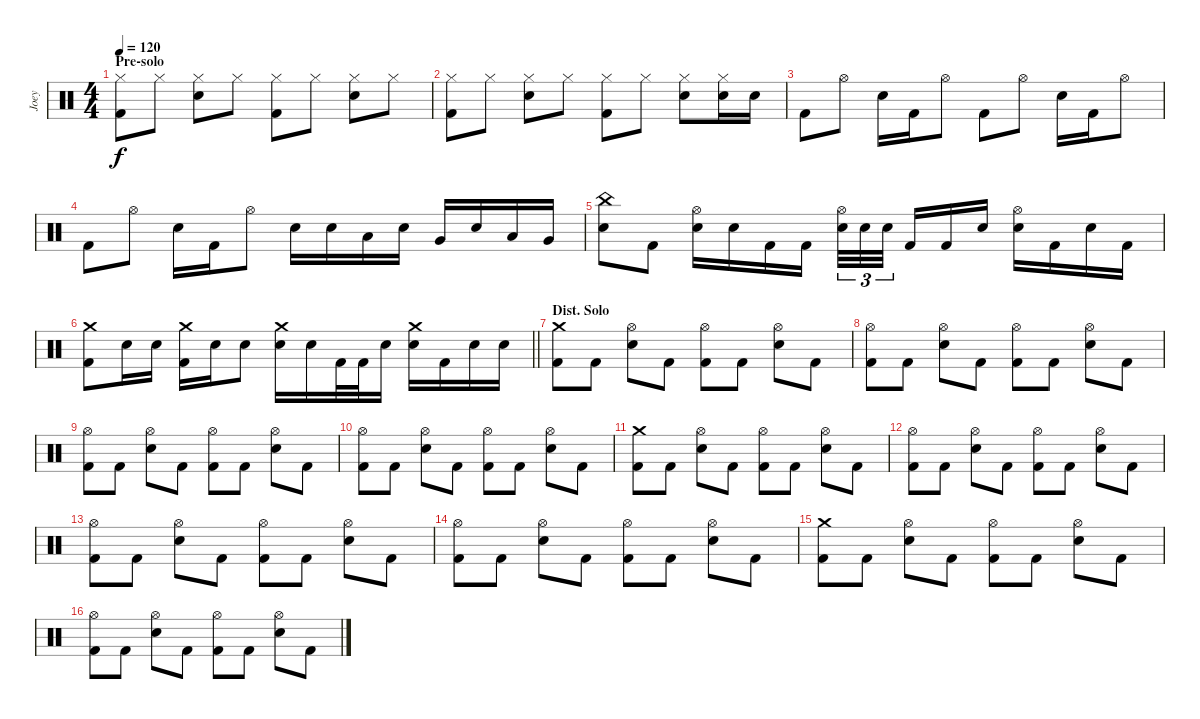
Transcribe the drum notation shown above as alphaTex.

\track ("Joey" "Joey") {instrument percussion}
\staff {score}
\articulation defaults
\ts (4 4)
\section ("" "Pre-solo")
\tempo 120
\clef neutral
\ks c
("Hi-Hat (closed)" "Kick (hit) 2").8{dy f} "Hi-Hat (closed)".8 ("Hi-Hat (closed)" "Electric Snare (hit)").8 "Hi-Hat (closed)".8 ("Hi-Hat (closed)" "Kick (hit) 2").8 "Hi-Hat (closed)".8 ("Hi-Hat (closed)" "Electric Snare (hit)").8 "Hi-Hat (closed)".8 |
("Hi-Hat (closed)" "Kick (hit) 2").8 "Hi-Hat (closed)".8 ("Hi-Hat (closed)" "Electric Snare (hit)").8 "Hi-Hat (closed)".8 ("Hi-Hat (closed)" "Kick (hit) 2").8 "Hi-Hat (closed)".8 ("Hi-Hat (closed)" "Electric Snare (hit)").8 ("Hi-Hat (closed)" "Electric Snare (hit)").16 "Electric Snare (hit)".16 |
"Kick (hit) 2".8 "Hi-Hat (open)".8 "Electric Snare (hit)".16 "Kick (hit) 2".16 "Hi-Hat (open)".8 "Kick (hit) 2".8 "Hi-Hat (open)".8 "Electric Snare (hit)".16 "Kick (hit) 2".16 "Hi-Hat (open)".8 |
"Kick (hit) 2".8 "Hi-Hat (open)".8 "Electric Snare (hit)".16 "Kick (hit) 2".16 "Hi-Hat (open)".8 "Electric Snare (hit)".16 "Electric Snare (hit)".16 "Low Tom (hit)".16 "Electric Snare (hit)".16 "Very Low Tom (hit)".16 "Electric Snare (hit)".16 "Low Tom (hit)".16 "Very Low Tom (hit)".16 |
("China (hit)" "Electric Snare (hit)").8 "Kick (hit) 2".8 ("Hi-Hat (open)" "Electric Snare (hit)").16 "Electric Snare (hit)".16 "Kick (hit) 2".16 "Kick (hit) 2".16 ("Hi-Hat (open)" "Electric Snare (hit)").32{tu (3 2)} "Electric Snare (hit)".32{tu (3 2)} "Electric Snare (hit)".32{tu (3 2) beam splitsecondary} "Kick (hit) 2".16 "Kick (hit) 2".16 "Electric Snare (hit)".16 ("Hi-Hat (open)" "Electric Snare (hit)").16 "Kick (hit) 2".16 "Electric Snare (hit)".16 "Kick (hit) 2".16 |
\barLineRight lightlight
("Crash medium (hit)" "Kick (hit) 2").8 "Electric Snare (hit)".16 "Electric Snare (hit)".16 ("Crash medium (hit)" "Kick (hit) 2").16 "Electric Snare (hit)".16 "Electric Snare (hit)".8 ("Crash medium (hit)" "Electric Snare (hit)").16 "Electric Snare (hit)".16 "Kick (hit) 2".32 "Kick (hit) 2".32 "Electric Snare (hit)".16 ("Crash medium (hit)" "Electric Snare (hit)").16 "Kick (hit) 2".16 "Electric Snare (hit)".16 "Electric Snare (hit)".16 |
\section ("" "Dist. Solo")
("Crash medium (hit)" "Kick (hit) 2").8 "Kick (hit) 2".8 ("Hi-Hat (open)" "Electric Snare (hit)").8 "Kick (hit) 2".8 ("Hi-Hat (open)" "Kick (hit) 2").8 "Kick (hit) 2".8 ("Hi-Hat (open)" "Electric Snare (hit)").8 "Kick (hit) 2".8 |
("Hi-Hat (open)" "Kick (hit) 2").8 "Kick (hit) 2".8 ("Hi-Hat (open)" "Electric Snare (hit)").8 "Kick (hit) 2".8 ("Hi-Hat (open)" "Kick (hit) 2").8 "Kick (hit) 2".8 ("Hi-Hat (open)" "Electric Snare (hit)").8 "Kick (hit) 2".8 |
("Hi-Hat (open)" "Kick (hit) 2").8 "Kick (hit) 2".8 ("Hi-Hat (open)" "Electric Snare (hit)").8 "Kick (hit) 2".8 ("Hi-Hat (open)" "Kick (hit) 2").8 "Kick (hit) 2".8 ("Hi-Hat (open)" "Electric Snare (hit)").8 "Kick (hit) 2".8 |
("Hi-Hat (open)" "Kick (hit) 2").8 "Kick (hit) 2".8 ("Hi-Hat (open)" "Electric Snare (hit)").8 "Kick (hit) 2".8 ("Hi-Hat (open)" "Kick (hit) 2").8 "Kick (hit) 2".8 ("Hi-Hat (open)" "Electric Snare (hit)").8 "Kick (hit) 2".8 |
("Crash medium (hit)" "Kick (hit) 2").8 "Kick (hit) 2".8 ("Hi-Hat (open)" "Electric Snare (hit)").8 "Kick (hit) 2".8 ("Hi-Hat (open)" "Kick (hit) 2").8 "Kick (hit) 2".8 ("Hi-Hat (open)" "Electric Snare (hit)").8 "Kick (hit) 2".8 |
("Hi-Hat (open)" "Kick (hit) 2").8 "Kick (hit) 2".8 ("Hi-Hat (open)" "Electric Snare (hit)").8 "Kick (hit) 2".8 ("Hi-Hat (open)" "Kick (hit) 2").8 "Kick (hit) 2".8 ("Hi-Hat (open)" "Electric Snare (hit)").8 "Kick (hit) 2".8 |
("Hi-Hat (open)" "Kick (hit) 2").8 "Kick (hit) 2".8 ("Hi-Hat (open)" "Electric Snare (hit)").8 "Kick (hit) 2".8 ("Hi-Hat (open)" "Kick (hit) 2").8 "Kick (hit) 2".8 ("Hi-Hat (open)" "Electric Snare (hit)").8 "Kick (hit) 2".8 |
("Hi-Hat (open)" "Kick (hit) 2").8 "Kick (hit) 2".8 ("Hi-Hat (open)" "Electric Snare (hit)").8 "Kick (hit) 2".8 ("Hi-Hat (open)" "Kick (hit) 2").8 "Kick (hit) 2".8 ("Hi-Hat (open)" "Electric Snare (hit)").8 "Kick (hit) 2".8 |
("Crash medium (hit)" "Kick (hit) 2").8 "Kick (hit) 2".8 ("Hi-Hat (open)" "Electric Snare (hit)").8 "Kick (hit) 2".8 ("Hi-Hat (open)" "Kick (hit) 2").8 "Kick (hit) 2".8 ("Hi-Hat (open)" "Electric Snare (hit)").8 "Kick (hit) 2".8 |
("Hi-Hat (open)" "Kick (hit) 2").8 "Kick (hit) 2".8 ("Hi-Hat (open)" "Electric Snare (hit)").8 "Kick (hit) 2".8 ("Hi-Hat (open)" "Kick (hit) 2").8 "Kick (hit) 2".8 ("Hi-Hat (open)" "Electric Snare (hit)").8 "Kick (hit) 2".8
